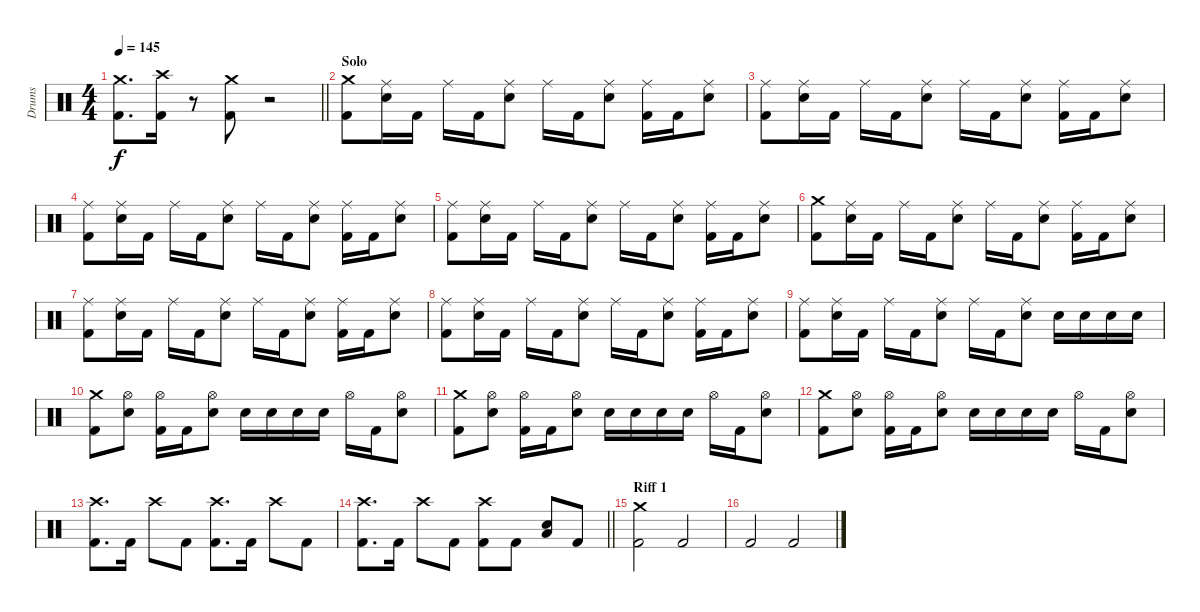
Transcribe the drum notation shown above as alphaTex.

\track ("Drums" "Drums") {instrument percussion}
\staff {score}
\articulation defaults
\ts (4 4)
\tempo 145
\clef neutral
\barLineRight lightlight
\ks c
("Crash medium (hit)" "Kick (hit) 2").8{d dy f} ("Crash high (hit)" "Kick (hit) 2").16 r.8 ("Crash medium (hit)" "Kick (hit) 2").8 r.2 |
\section ("" "Solo")
("Crash medium (hit)" "Kick (hit) 2").8 ("Ride (middle)" "Electric Snare (hit)").16 "Kick (hit) 2".16 "Ride (middle)".16 "Kick (hit) 2".16 ("Ride (middle)" "Electric Snare (hit)").8 "Ride (middle)".16 "Kick (hit) 2".16 ("Electric Snare (hit)" "Ride (middle)").8 ("Kick (hit) 2" "Ride (middle)").16 "Kick (hit) 2".16 ("Electric Snare (hit)" "Ride (middle)").8 |
("Ride (middle)" "Kick (hit) 2").8 ("Ride (middle)" "Electric Snare (hit)").16 "Kick (hit) 2".16 "Ride (middle)".16 "Kick (hit) 2".16 ("Ride (middle)" "Electric Snare (hit)").8 "Ride (middle)".16 "Kick (hit) 2".16 ("Electric Snare (hit)" "Ride (middle)").8 ("Kick (hit) 2" "Ride (middle)").16 "Kick (hit) 2".16 ("Electric Snare (hit)" "Ride (middle)").8 |
("Ride (middle)" "Kick (hit) 2").8 ("Ride (middle)" "Electric Snare (hit)").16 "Kick (hit) 2".16 "Ride (middle)".16 "Kick (hit) 2".16 ("Ride (middle)" "Electric Snare (hit)").8 "Ride (middle)".16 "Kick (hit) 2".16 ("Electric Snare (hit)" "Ride (middle)").8 ("Kick (hit) 2" "Ride (middle)").16 "Kick (hit) 2".16 ("Electric Snare (hit)" "Ride (middle)").8 |
("Ride (middle)" "Kick (hit) 2").8 ("Ride (middle)" "Electric Snare (hit)").16 "Kick (hit) 2".16 "Ride (middle)".16 "Kick (hit) 2".16 ("Ride (middle)" "Electric Snare (hit)").8 "Ride (middle)".16 "Kick (hit) 2".16 ("Electric Snare (hit)" "Ride (middle)").8 ("Kick (hit) 2" "Ride (middle)").16 "Kick (hit) 2".16 ("Electric Snare (hit)" "Ride (middle)").8 |
("Crash medium (hit)" "Kick (hit) 2").8 ("Ride (middle)" "Electric Snare (hit)").16 "Kick (hit) 2".16 "Ride (middle)".16 "Kick (hit) 2".16 ("Ride (middle)" "Electric Snare (hit)").8 "Ride (middle)".16 "Kick (hit) 2".16 ("Electric Snare (hit)" "Ride (middle)").8 ("Kick (hit) 2" "Ride (middle)").16 "Kick (hit) 2".16 ("Electric Snare (hit)" "Ride (middle)").8 |
("Ride (middle)" "Kick (hit) 2").8 ("Ride (middle)" "Electric Snare (hit)").16 "Kick (hit) 2".16 "Ride (middle)".16 "Kick (hit) 2".16 ("Ride (middle)" "Electric Snare (hit)").8 "Ride (middle)".16 "Kick (hit) 2".16 ("Electric Snare (hit)" "Ride (middle)").8 ("Kick (hit) 2" "Ride (middle)").16 "Kick (hit) 2".16 ("Electric Snare (hit)" "Ride (middle)").8 |
("Ride (middle)" "Kick (hit) 2").8 ("Ride (middle)" "Electric Snare (hit)").16 "Kick (hit) 2".16 "Ride (middle)".16 "Kick (hit) 2".16 ("Ride (middle)" "Electric Snare (hit)").8 "Ride (middle)".16 "Kick (hit) 2".16 ("Electric Snare (hit)" "Ride (middle)").8 ("Kick (hit) 2" "Ride (middle)").16 "Kick (hit) 2".16 ("Electric Snare (hit)" "Ride (middle)").8 |
("Ride (middle)" "Kick (hit) 2").8 ("Ride (middle)" "Electric Snare (hit)").16 "Kick (hit) 2".16 "Ride (middle)".16 "Kick (hit) 2".16 ("Ride (middle)" "Electric Snare (hit)").8 "Ride (middle)".16 "Kick (hit) 2".16 ("Electric Snare (hit)" "Ride (middle)").8 "Electric Snare (hit)".16 "Electric Snare (hit)".16 "Electric Snare (hit)".16 "Electric Snare (hit)".16 |
("Crash medium (hit)" "Kick (hit) 2").8 ("Electric Snare (hit)" "Hi-Hat (open)").8 ("Kick (hit) 2" "Hi-Hat (open)").16 "Kick (hit) 2".16 ("Electric Snare (hit)" "Hi-Hat (open)").8 "Electric Snare (hit)".16 "Electric Snare (hit)".16 "Electric Snare (hit)".16 "Electric Snare (hit)".16 "Hi-Hat (open)".16 "Kick (hit) 2".16 ("Electric Snare (hit)" "Hi-Hat (open)").8 |
("Crash medium (hit)" "Kick (hit) 2").8 ("Electric Snare (hit)" "Hi-Hat (open)").8 ("Kick (hit) 2" "Hi-Hat (open)").16 "Kick (hit) 2".16 ("Electric Snare (hit)" "Hi-Hat (open)").8 "Electric Snare (hit)".16 "Electric Snare (hit)".16 "Electric Snare (hit)".16 "Electric Snare (hit)".16 "Hi-Hat (open)".16 "Kick (hit) 2".16 ("Electric Snare (hit)" "Hi-Hat (open)").8 |
("Crash medium (hit)" "Kick (hit) 2").8 ("Electric Snare (hit)" "Hi-Hat (open)").8 ("Kick (hit) 2" "Hi-Hat (open)").16 "Kick (hit) 2".16 ("Electric Snare (hit)" "Hi-Hat (open)").8 "Electric Snare (hit)".16 "Electric Snare (hit)".16 "Electric Snare (hit)".16 "Electric Snare (hit)".16 "Hi-Hat (open)".16 "Kick (hit) 2".16 ("Electric Snare (hit)" "Hi-Hat (open)").8 |
("Crash high (hit)" "Kick (hit) 2").8{d} "Kick (hit) 2".16 "Crash high (hit)".8 "Kick (hit) 2".8 ("Crash high (hit)" "Kick (hit) 2").8{d} "Kick (hit) 2".16 "Crash high (hit)".8 "Kick (hit) 2".8 |
\barLineRight lightlight
("Crash high (hit)" "Kick (hit) 2").8{d} "Kick (hit) 2".16 "Crash high (hit)".8 "Kick (hit) 2".8 ("Crash high (hit)" "Kick (hit) 2").8 "Kick (hit) 2".8 ("Electric Snare (hit)" "Low Floor Tom (hit)").8 "Kick (hit) 2".8 |
\section ("" "Riff 1")
("Kick (hit) 2" "Crash medium (hit)").2 "Kick (hit) 2".2 |
"Kick (hit) 2".2 "Kick (hit) 2".2
